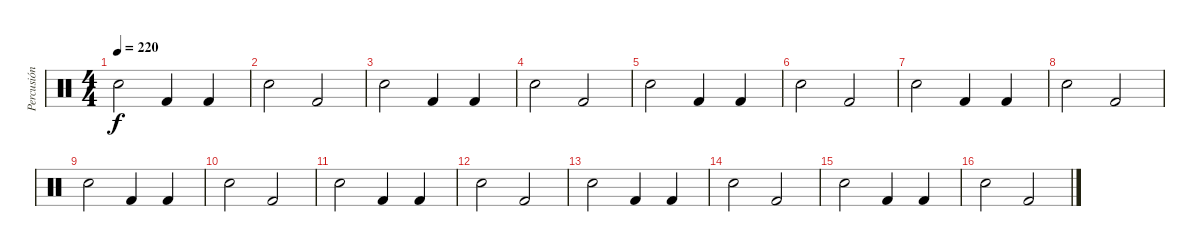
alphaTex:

\track ("Percusión" "Percusión") {instrument percussion}
\staff {score}
\articulation defaults
\ts (4 4)
\tempo 220
\clef neutral
\ks c "Electric Snare (hit)".2{dy f} "Kick (hit) 2".4 "Kick (hit) 2".4
|
"Electric Snare (hit)".2 "Kick (hit) 2".2 |
"Electric Snare (hit)".2 "Kick (hit) 2".4 "Kick (hit) 2".4 |
"Electric Snare (hit)".2 "Kick (hit) 2".2 |
"Electric Snare (hit)".2 "Kick (hit) 2".4 "Kick (hit) 2".4 |
"Electric Snare (hit)".2 "Kick (hit) 2".2 |
"Electric Snare (hit)".2 "Kick (hit) 2".4 "Kick (hit) 2".4 |
"Electric Snare (hit)".2 "Kick (hit) 2".2 |
"Electric Snare (hit)".2 "Kick (hit) 2".4 "Kick (hit) 2".4 |
"Electric Snare (hit)".2 "Kick (hit) 2".2 |
"Electric Snare (hit)".2 "Kick (hit) 2".4 "Kick (hit) 2".4 |
"Electric Snare (hit)".2 "Kick (hit) 2".2 |
"Electric Snare (hit)".2 "Kick (hit) 2".4 "Kick (hit) 2".4 |
"Electric Snare (hit)".2 "Kick (hit) 2".2 |
"Electric Snare (hit)".2 "Kick (hit) 2".4 "Kick (hit) 2".4 |
"Electric Snare (hit)".2 "Kick (hit) 2".2
